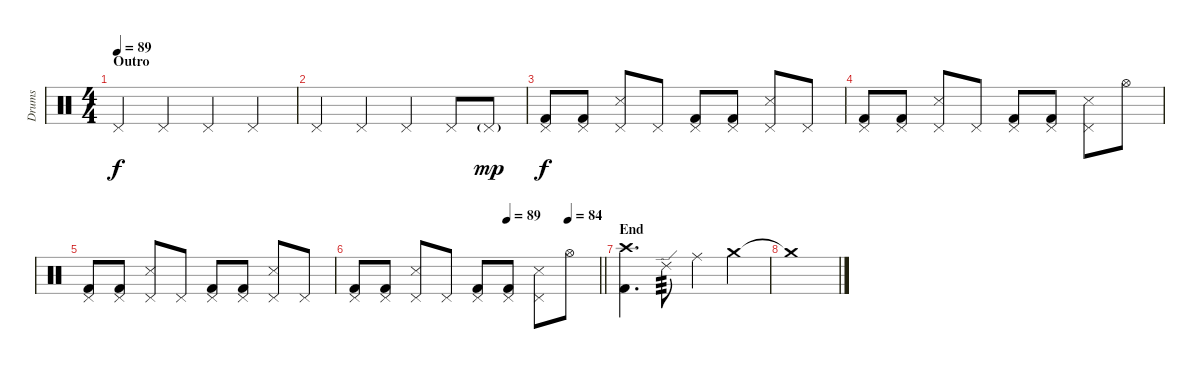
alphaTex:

\track ("Drums" "Drums") {instrument percussion}
\staff {score}
\articulation defaults
\ts (4 4)
\section ("" "Outro")
\tempo 89
\clef neutral
\ks c "Pedal Hi-Hat (hit)".4{dy f} "Pedal Hi-Hat (hit)".4 "Pedal Hi-Hat (hit)".4 "Pedal Hi-Hat (hit)".4
|
"Pedal Hi-Hat (hit)".4 "Pedal Hi-Hat (hit)".4 "Pedal Hi-Hat (hit)".4 "Pedal Hi-Hat (hit)".8 "Pedal Hi-Hat (hit)"{g}.8{dy mp} |
("Pedal Hi-Hat (hit)" "Kick (hit) 2").8{dy f} ("Pedal Hi-Hat (hit)" "Kick (hit) 2").8 ("Pedal Hi-Hat (hit)" "Snare (side stick) 3").8 "Pedal Hi-Hat (hit)".8 ("Pedal Hi-Hat (hit)" "Kick (hit) 2").8 ("Pedal Hi-Hat (hit)" "Kick (hit) 2").8 ("Pedal Hi-Hat (hit)" "Snare (side stick) 3").8 "Pedal Hi-Hat (hit)".8 |
("Pedal Hi-Hat (hit)" "Kick (hit) 2").8 ("Pedal Hi-Hat (hit)" "Kick (hit) 2").8 ("Pedal Hi-Hat (hit)" "Snare (side stick) 3").8 "Pedal Hi-Hat (hit)".8 ("Pedal Hi-Hat (hit)" "Kick (hit) 2").8 ("Pedal Hi-Hat (hit)" "Kick (hit) 2").8 ("Pedal Hi-Hat (hit)" "Snare (side stick) 3").8 "Hi-Hat (open)".8 |
("Pedal Hi-Hat (hit)" "Kick (hit) 2").8 ("Pedal Hi-Hat (hit)" "Kick (hit) 2").8 ("Pedal Hi-Hat (hit)" "Snare (side stick) 3").8 "Pedal Hi-Hat (hit)".8 ("Pedal Hi-Hat (hit)" "Kick (hit) 2").8 ("Pedal Hi-Hat (hit)" "Kick (hit) 2").8 ("Pedal Hi-Hat (hit)" "Snare (side stick) 3").8 "Pedal Hi-Hat (hit)".8 |
\tempo (89 0.625)
\tempo (84 0.875)
\barLineRight lightlight
("Pedal Hi-Hat (hit)" "Kick (hit) 2").8 ("Pedal Hi-Hat (hit)" "Kick (hit) 2").8 ("Pedal Hi-Hat (hit)" "Snare (side stick) 3").8 "Pedal Hi-Hat (hit)".8 ("Pedal Hi-Hat (hit)" "Kick (hit) 2").8 ("Pedal Hi-Hat (hit)" "Kick (hit) 2").8 ("Pedal Hi-Hat (hit)" "Snare (side stick) 3").8 "Hi-Hat (open)".8 |
\section ("" "End")
("Crash high (hit)" "Kick (hit) 2").4{d} "Ride (edge) 2".8{tp 3} "Ride (middle)".4 "Crash medium (hit)".4 |
"Crash medium (hit)"{t}.1
